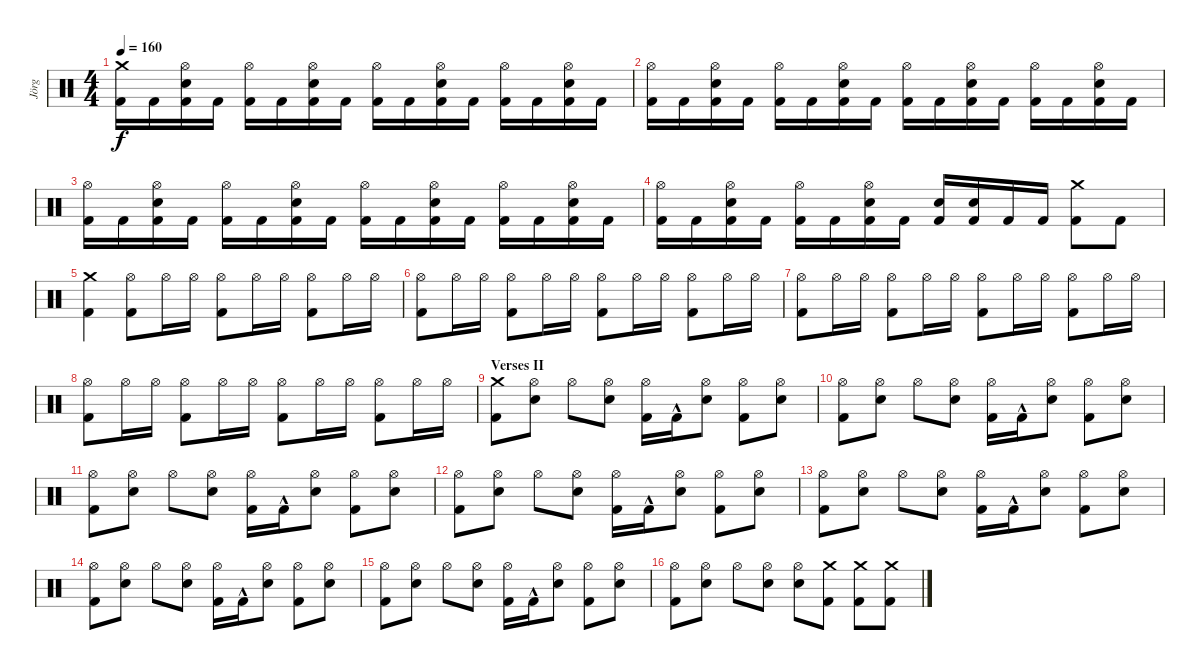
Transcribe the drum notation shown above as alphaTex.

\track ("Jörg" "Jörg") {instrument percussion}
\staff {score}
\articulation defaults
\ts (4 4)
\tempo 160
\clef neutral
\ks c
("Crash medium (hit)" "Kick (hit) 2").16{dy f} "Kick (hit) 2".16 ("Kick (hit) 2" "Snare (hit) 2" "Hi-Hat (open)").16 "Kick (hit) 2".16 ("Kick (hit) 2" "Hi-Hat (open)").16 "Kick (hit) 2".16 ("Kick (hit) 2" "Snare (hit) 2" "Hi-Hat (open)").16 "Kick (hit) 2".16 ("Kick (hit) 2" "Hi-Hat (open)").16 "Kick (hit) 2".16 ("Kick (hit) 2" "Snare (hit) 2" "Hi-Hat (open)").16 "Kick (hit) 2".16 ("Kick (hit) 2" "Hi-Hat (open)").16 "Kick (hit) 2".16 ("Kick (hit) 2" "Snare (hit) 2" "Hi-Hat (open)").16 "Kick (hit) 2".16 |
("Hi-Hat (open)" "Kick (hit) 2").16 "Kick (hit) 2".16 ("Kick (hit) 2" "Snare (hit) 2" "Hi-Hat (open)").16 "Kick (hit) 2".16 ("Kick (hit) 2" "Hi-Hat (open)").16 "Kick (hit) 2".16 ("Kick (hit) 2" "Snare (hit) 2" "Hi-Hat (open)").16 "Kick (hit) 2".16 ("Kick (hit) 2" "Hi-Hat (open)").16 "Kick (hit) 2".16 ("Kick (hit) 2" "Snare (hit) 2" "Hi-Hat (open)").16 "Kick (hit) 2".16 ("Kick (hit) 2" "Hi-Hat (open)").16 "Kick (hit) 2".16 ("Kick (hit) 2" "Snare (hit) 2" "Hi-Hat (open)").16 "Kick (hit) 2".16 |
("Hi-Hat (open)" "Kick (hit) 2").16 "Kick (hit) 2".16 ("Kick (hit) 2" "Snare (hit) 2" "Hi-Hat (open)").16 "Kick (hit) 2".16 ("Kick (hit) 2" "Hi-Hat (open)").16 "Kick (hit) 2".16 ("Kick (hit) 2" "Snare (hit) 2" "Hi-Hat (open)").16 "Kick (hit) 2".16 ("Kick (hit) 2" "Hi-Hat (open)").16 "Kick (hit) 2".16 ("Kick (hit) 2" "Snare (hit) 2" "Hi-Hat (open)").16 "Kick (hit) 2".16 ("Kick (hit) 2" "Hi-Hat (open)").16 "Kick (hit) 2".16 ("Kick (hit) 2" "Snare (hit) 2" "Hi-Hat (open)").16 "Kick (hit) 2".16 |
("Hi-Hat (open)" "Kick (hit) 2").16 "Kick (hit) 2".16 ("Kick (hit) 2" "Snare (hit) 2" "Hi-Hat (open)").16 "Kick (hit) 2".16 ("Kick (hit) 2" "Hi-Hat (open)").16 "Kick (hit) 2".16 ("Kick (hit) 2" "Snare (hit) 2" "Hi-Hat (open)").16 "Kick (hit) 2".16 ("Snare (hit) 2" "Kick (hit) 2").16 ("Snare (hit) 2" "Kick (hit) 2").16 "Kick (hit) 2".16 "Kick (hit) 2".16 ("Crash medium (hit)" "Kick (hit) 2").8 "Kick (hit) 2".8 |
("Crash medium (hit)" "Kick (hit) 2").4 ("Hi-Hat (open)" "Kick (hit) 2").8 "Hi-Hat (open)".16 "Hi-Hat (open)".16 ("Hi-Hat (open)" "Kick (hit) 2").8 "Hi-Hat (open)".16 "Hi-Hat (open)".16 ("Hi-Hat (open)" "Kick (hit) 2").8 "Hi-Hat (open)".16 "Hi-Hat (open)".16 |
("Hi-Hat (open)" "Kick (hit) 2").8 "Hi-Hat (open)".16 "Hi-Hat (open)".16 ("Hi-Hat (open)" "Kick (hit) 2").8 "Hi-Hat (open)".16 "Hi-Hat (open)".16 ("Hi-Hat (open)" "Kick (hit) 2").8 "Hi-Hat (open)".16 "Hi-Hat (open)".16 ("Hi-Hat (open)" "Kick (hit) 2").8 "Hi-Hat (open)".16 "Hi-Hat (open)".16 |
("Hi-Hat (open)" "Kick (hit) 2").8 "Hi-Hat (open)".16 "Hi-Hat (open)".16 ("Hi-Hat (open)" "Kick (hit) 2").8 "Hi-Hat (open)".16 "Hi-Hat (open)".16 ("Hi-Hat (open)" "Kick (hit) 2").8 "Hi-Hat (open)".16 "Hi-Hat (open)".16 ("Hi-Hat (open)" "Kick (hit) 2").8 "Hi-Hat (open)".16 "Hi-Hat (open)".16 |
("Hi-Hat (open)" "Kick (hit) 2").8 "Hi-Hat (open)".16 "Hi-Hat (open)".16 ("Hi-Hat (open)" "Kick (hit) 2").8 "Hi-Hat (open)".16 "Hi-Hat (open)".16 ("Hi-Hat (open)" "Kick (hit) 2").8 "Hi-Hat (open)".16 "Hi-Hat (open)".16 ("Hi-Hat (open)" "Kick (hit) 2").8 "Hi-Hat (open)".16 "Hi-Hat (open)".16 |
\section ("" "Verses II")
("Kick (hit) 2" "Crash medium (hit)").8 ("Snare (hit) 2" "Hi-Hat (open)").8 "Hi-Hat (open)".8 ("Snare (hit) 2" "Hi-Hat (open)").8 ("Kick (hit) 2" "Hi-Hat (open)").16 "Kick (hit) 2"{hac}.16 ("Snare (hit) 2" "Hi-Hat (open)").8 ("Kick (hit) 2" "Hi-Hat (open)").8 ("Snare (hit) 2" "Hi-Hat (open)").8 |
("Hi-Hat (open)" "Kick (hit) 2").8 ("Snare (hit) 2" "Hi-Hat (open)").8 "Hi-Hat (open)".8 ("Snare (hit) 2" "Hi-Hat (open)").8 ("Kick (hit) 2" "Hi-Hat (open)").16 "Kick (hit) 2"{hac}.16 ("Snare (hit) 2" "Hi-Hat (open)").8 ("Kick (hit) 2" "Hi-Hat (open)").8 ("Snare (hit) 2" "Hi-Hat (open)").8 |
("Hi-Hat (open)" "Kick (hit) 2").8 ("Snare (hit) 2" "Hi-Hat (open)").8 "Hi-Hat (open)".8 ("Snare (hit) 2" "Hi-Hat (open)").8 ("Kick (hit) 2" "Hi-Hat (open)").16 "Kick (hit) 2"{hac}.16 ("Snare (hit) 2" "Hi-Hat (open)").8 ("Kick (hit) 2" "Hi-Hat (open)").8 ("Snare (hit) 2" "Hi-Hat (open)").8 |
("Hi-Hat (open)" "Kick (hit) 2").8 ("Snare (hit) 2" "Hi-Hat (open)").8 "Hi-Hat (open)".8 ("Snare (hit) 2" "Hi-Hat (open)").8 ("Kick (hit) 2" "Hi-Hat (open)").16 "Kick (hit) 2"{hac}.16 ("Snare (hit) 2" "Hi-Hat (open)").8 ("Kick (hit) 2" "Hi-Hat (open)").8 ("Snare (hit) 2" "Hi-Hat (open)").8 |
("Hi-Hat (open)" "Kick (hit) 2").8 ("Snare (hit) 2" "Hi-Hat (open)").8 "Hi-Hat (open)".8 ("Snare (hit) 2" "Hi-Hat (open)").8 ("Kick (hit) 2" "Hi-Hat (open)").16 "Kick (hit) 2"{hac}.16 ("Snare (hit) 2" "Hi-Hat (open)").8 ("Kick (hit) 2" "Hi-Hat (open)").8 ("Snare (hit) 2" "Hi-Hat (open)").8 |
("Hi-Hat (open)" "Kick (hit) 2").8 ("Snare (hit) 2" "Hi-Hat (open)").8 "Hi-Hat (open)".8 ("Snare (hit) 2" "Hi-Hat (open)").8 ("Kick (hit) 2" "Hi-Hat (open)").16 "Kick (hit) 2"{hac}.16 ("Snare (hit) 2" "Hi-Hat (open)").8 ("Kick (hit) 2" "Hi-Hat (open)").8 ("Snare (hit) 2" "Hi-Hat (open)").8 |
("Hi-Hat (open)" "Kick (hit) 2").8 ("Snare (hit) 2" "Hi-Hat (open)").8 "Hi-Hat (open)".8 ("Snare (hit) 2" "Hi-Hat (open)").8 ("Kick (hit) 2" "Hi-Hat (open)").16 "Kick (hit) 2"{hac}.16 ("Snare (hit) 2" "Hi-Hat (open)").8 ("Kick (hit) 2" "Hi-Hat (open)").8 ("Snare (hit) 2" "Hi-Hat (open)").8 |
("Hi-Hat (open)" "Kick (hit) 2").8 ("Snare (hit) 2" "Hi-Hat (open)").8 "Hi-Hat (open)".8 ("Snare (hit) 2" "Hi-Hat (open)").8 ("Snare (hit) 2" "Hi-Hat (open)").8 ("Kick (hit) 2" "Crash medium (hit)").8 ("Crash medium (hit)" "Kick (hit) 2").8 ("Kick (hit) 2" "Crash medium (hit)").8
